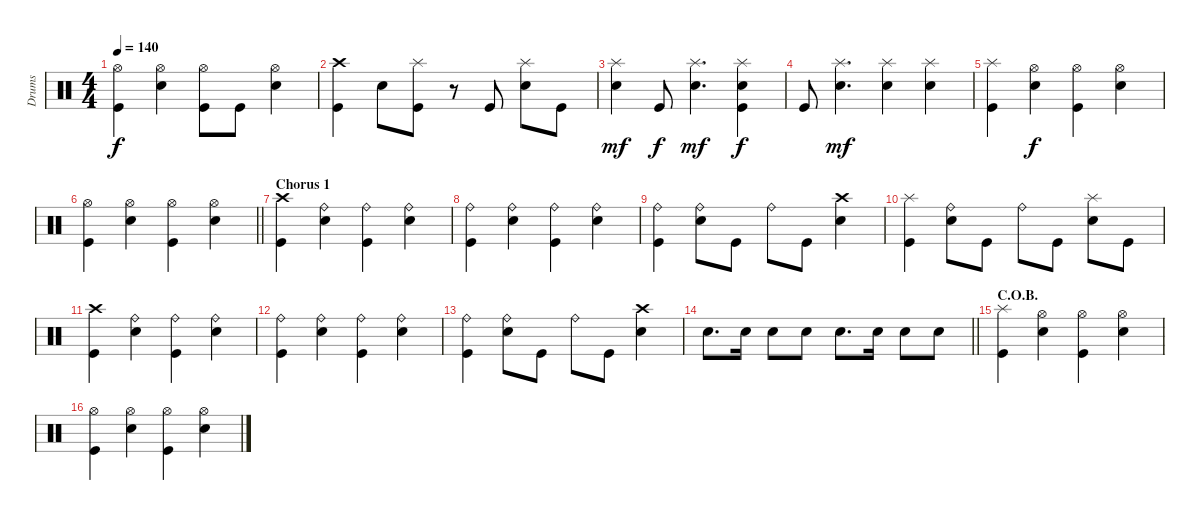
\track ("Drums" "Drums") {instrument percussion}
\staff {score}
\articulation defaults
\ts (4 4)
\tempo 140
\clef neutral
\ks c
("Hi-Hat (open)" "Kick (hit)").4{dy f} ("Hi-Hat (open)" "Electric Snare (hit)").4 ("Hi-Hat (open)" "Kick (hit)").8 "Kick (hit)".8 ("Hi-Hat (open)" "Electric Snare (hit)").4 |
("Crash high (hit)" "Kick (hit)").4 "Electric Snare (hit)".8 ("Splash (hit)" "Kick (hit)").8 r.8 "Kick (hit)".8 ("Splash (hit)" "Electric Snare (hit)").8 "Kick (hit)".8 |
("Splash (hit)" "Electric Snare (hit)").4{dy mf} "Kick (hit)".8{dy f} ("Splash (hit)" "Electric Snare (hit)").4{d dy mf} ("Kick (hit)" "Splash (hit)" "Electric Snare (hit)").4{dy f} |
"Kick (hit)".8 ("Splash (hit)" "Electric Snare (hit)").4{d dy mf} ("Splash (hit)" "Electric Snare (hit)").4 ("Splash (hit)" "Electric Snare (hit)").4 |
("Splash (hit)" "Kick (hit)").4 ("Hi-Hat (open)" "Electric Snare (hit)").4{dy f} ("Hi-Hat (open)" "Kick (hit)").4 ("Hi-Hat (open)" "Electric Snare (hit)").4 |
\barLineRight lightlight
("Hi-Hat (open)" "Kick (hit)").4 ("Hi-Hat (open)" "Electric Snare (hit)").4 ("Hi-Hat (open)" "Kick (hit)").4 ("Hi-Hat (open)" "Electric Snare (hit)").4 |
\section ("" "Chorus 1")
("Crash high (hit)" "Kick (hit)").4 ("Ride (bell)" "Electric Snare (hit)").4 ("Ride (bell)" "Kick (hit)").4 ("Ride (bell)" "Electric Snare (hit)").4 |
("Ride (bell)" "Kick (hit)").4 ("Ride (bell)" "Electric Snare (hit)").4 ("Ride (bell)" "Kick (hit)").4 ("Ride (bell)" "Electric Snare (hit)").4 |
("Ride (bell)" "Kick (hit)").4 ("Ride (bell)" "Electric Snare (hit)").8 "Kick (hit)".8 "Ride (bell)".8 "Kick (hit)".8 ("Crash high (hit)" "Electric Snare (hit)").4 |
("Splash (hit)" "Kick (hit)").4 ("Ride (bell)" "Electric Snare (hit)").8 "Kick (hit)".8 "Ride (bell)".8 "Kick (hit)".8 ("Splash (hit)" "Electric Snare (hit)").8 "Kick (hit)".8 |
("Crash high (hit)" "Kick (hit)").4 ("Ride (bell)" "Electric Snare (hit)").4 ("Ride (bell)" "Kick (hit)").4 ("Ride (bell)" "Electric Snare (hit)").4 |
("Ride (bell)" "Kick (hit)").4 ("Ride (bell)" "Electric Snare (hit)").4 ("Ride (bell)" "Kick (hit)").4 ("Ride (bell)" "Electric Snare (hit)").4 |
("Ride (bell)" "Kick (hit)").4 ("Ride (bell)" "Electric Snare (hit)").8 "Kick (hit)".8 "Ride (bell)".8 "Kick (hit)".8 ("Crash high (hit)" "Electric Snare (hit)").4 |
\barLineRight lightlight "Electric Snare (hit)".8{d} "Electric Snare (hit)".16 "Electric Snare (hit)".8 "Electric Snare (hit)".8 "Electric Snare (hit)".8{d} "Electric Snare (hit)".16 "Electric Snare (hit)".8 "Electric Snare (hit)".8
|
\section ("" "C.O.B.")
("Splash (hit)" "Kick (hit)").4 ("Hi-Hat (open)" "Electric Snare (hit)").4 ("Hi-Hat (open)" "Kick (hit)").4 ("Hi-Hat (open)" "Electric Snare (hit)").4 |
("Hi-Hat (open)" "Kick (hit)").4 ("Hi-Hat (open)" "Electric Snare (hit)").4 ("Hi-Hat (open)" "Kick (hit)").4 ("Hi-Hat (open)" "Electric Snare (hit)").4
